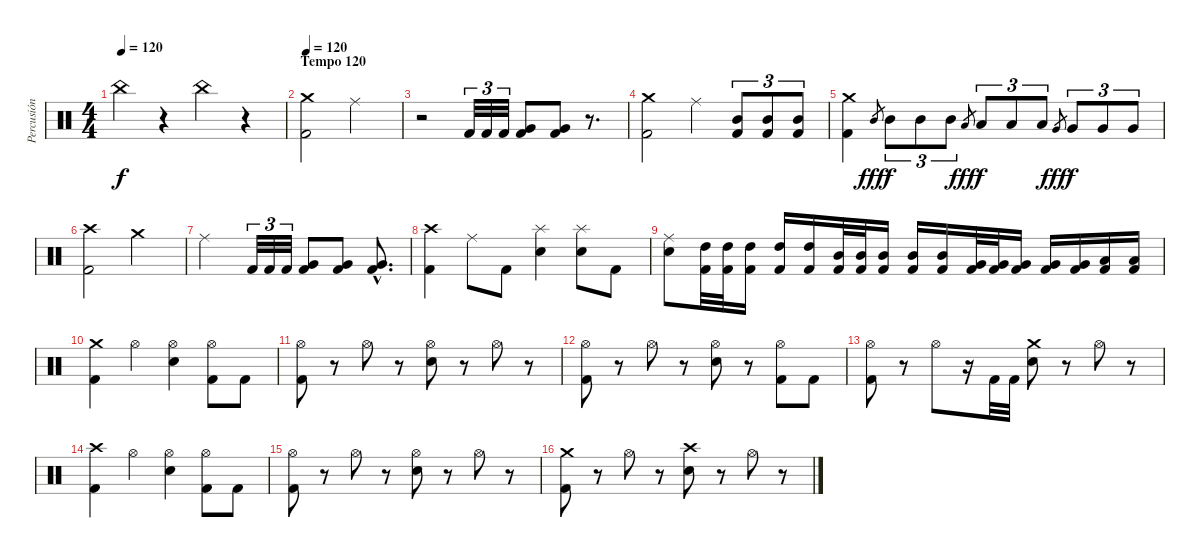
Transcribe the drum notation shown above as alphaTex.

\track ("Percusión" "Percusión") {instrument percussion}
\staff {score}
\articulation defaults
\ts (4 4)
\tempo 120
\clef neutral
\ks c "China (hit)".4{dy f}
r.4 "China (hit)".4 r.4 |
\section ("" "Tempo 120")
\tempo 120
("Crash medium (hit)" "Kick (hit) 2").2 "Ride (middle)".2 |
r.2 "Kick (hit) 2".32{tu (3 2)} "Kick (hit) 2".32{tu (3 2)} "Kick (hit) 2".32{tu (3 2)} ("Very Low Tom (hit)" "Kick (hit) 2").8 ("Very Low Tom (hit)" "Kick (hit) 2").8 r.8{d} |
("Crash medium (hit)" "Kick (hit) 2").2 "Ride (middle)".4 ("Mid Tom (hit)" "Kick (hit) 2").8{tu (3 2)} ("Mid Tom (hit)" "Kick (hit) 2").8{tu (3 2)} ("Mid Tom (hit)" "Kick (hit) 2").8{tu (3 2)} |
("Crash medium (hit)" "Kick (hit) 2").4 "Mid Tom (hit)".8{gr dy fff} "Mid Tom (hit)".8{tu (3 2) dy f} "Mid Tom (hit)".8{tu (3 2)} "Mid Tom (hit)".8{tu (3 2)} "Low Tom (hit)".8{gr dy fff} "Low Tom (hit)".8{tu (3 2) dy f} "Low Tom (hit)".8{tu (3 2)} "Low Tom (hit)".8{tu (3 2)} "Very Low Tom (hit)".8{gr dy fff} "Very Low Tom (hit)".8{tu (3 2) dy f} "Very Low Tom (hit)".8{tu (3 2)} "Very Low Tom (hit)".8{tu (3 2)} |
("Crash high (hit)" "Kick (hit) 2").2 "Crash medium (hit)".2 |
"Ride (middle)".2 "Kick (hit) 2".32{tu (3 2)} "Kick (hit) 2".32{tu (3 2)} "Kick (hit) 2".32{tu (3 2)} ("Very Low Tom (hit)" "Kick (hit) 2").8 ("Very Low Tom (hit)" "Kick (hit) 2").8 ("Very Low Tom (hit)"{hac} "Kick (hit) 2"{hac}).8{d} |
("Crash high (hit)" "Kick (hit) 2").4 "Ride (middle)".8 "Kick (hit) 2".8 ("Splash (hit)" "Electric Snare (hit)").4 ("Splash (hit)" "Electric Snare (hit)").8 "Kick (hit) 2".8 |
("Ride (middle)" "Electric Snare (hit)").8 ("High Tom (hit)" "Kick (hit) 2").32 ("High Tom (hit)" "Kick (hit) 2").32 ("High Tom (hit)" "Kick (hit) 2").16 ("High Tom (hit)" "Kick (hit) 2").16 ("High Tom (hit)" "Kick (hit) 2").16 ("Mid Tom (hit)" "Kick (hit) 2").32 ("Mid Tom (hit)" "Kick (hit) 2").32 ("Mid Tom (hit)" "Kick (hit) 2").16 ("Mid Tom (hit)" "Kick (hit) 2").16 ("Mid Tom (hit)" "Kick (hit) 2").16 ("Very Low Tom (hit)" "Kick (hit) 2").32 ("Very Low Tom (hit)" "Kick (hit) 2").32 ("Very Low Tom (hit)" "Kick (hit) 2").16 ("Very Low Tom (hit)" "Kick (hit) 2").16 ("Very Low Tom (hit)" "Kick (hit) 2").16 ("Low Floor Tom (hit)" "Kick (hit) 2").16 ("Low Floor Tom (hit)" "Kick (hit) 2").16 |
("Crash medium (hit)" "Kick (hit) 2").4 "Hi-Hat (open)".4 ("Hi-Hat (open)" "Electric Snare (hit)").4 ("Hi-Hat (open)" "Kick (hit) 2").8 "Kick (hit) 2".8 |
("Hi-Hat (open)" "Kick (hit) 2").8 r.8 "Hi-Hat (open)".8 r.8 ("Hi-Hat (open)" "Electric Snare (hit)").8 r.8 "Hi-Hat (open)".8 r.8 |
("Hi-Hat (open)" "Kick (hit) 2").8 r.8 "Hi-Hat (open)".8 r.8 ("Hi-Hat (open)" "Electric Snare (hit)").8 r.8 ("Hi-Hat (open)" "Kick (hit) 2").8 "Kick (hit) 2".8 |
("Hi-Hat (open)" "Kick (hit) 2").8 r.8 "Hi-Hat (open)".8 r.16 "Kick (hit) 2".32 "Kick (hit) 2".32 ("Crash medium (hit)" "Electric Snare (hit)").8 r.8 "Hi-Hat (open)".8 r.8 |
("Crash high (hit)" "Kick (hit) 2").4 "Hi-Hat (open)".4 ("Hi-Hat (open)" "Electric Snare (hit)").4 ("Hi-Hat (open)" "Kick (hit) 2").8 "Kick (hit) 2".8 |
("Hi-Hat (open)" "Kick (hit) 2").8 r.8 "Hi-Hat (open)".8 r.8 ("Hi-Hat (open)" "Electric Snare (hit)").8 r.8 "Hi-Hat (open)".8 r.8 |
("Crash medium (hit)" "Kick (hit) 2").8 r.8 "Hi-Hat (open)".8 r.8 ("Crash high (hit)" "Electric Snare (hit)").8 r.8 "Hi-Hat (open)".8 r.8
